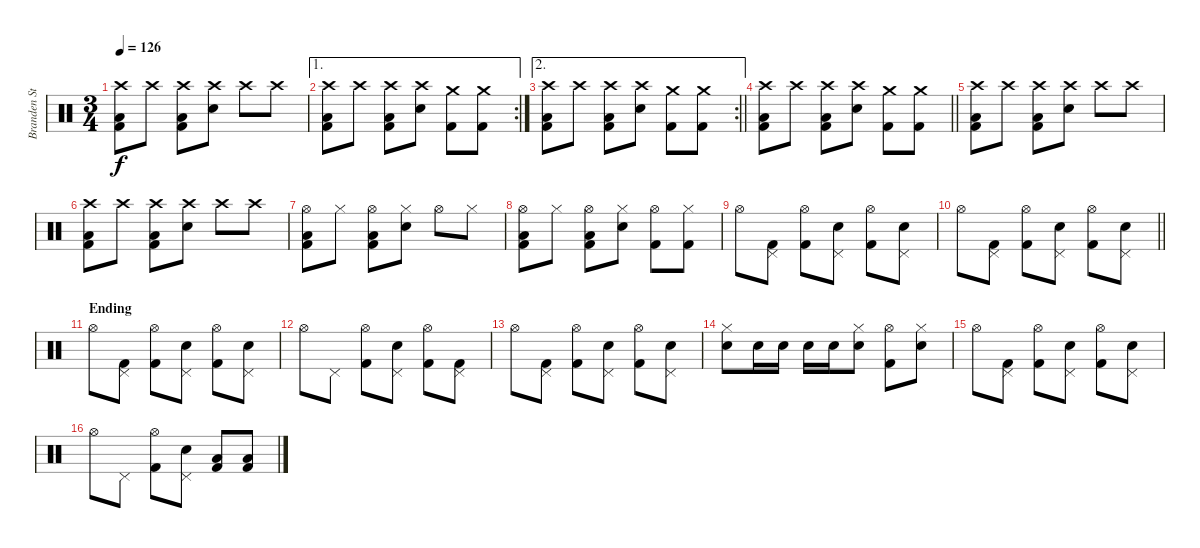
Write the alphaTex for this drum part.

\track ("Branden Steineckert [Drums]" "Branden St") {instrument percussion}
\staff {score}
\articulation defaults
\ts (3 4)
\tempo 126
\clef neutral
\ks c
("Crash high (hit)" "Low Floor Tom (hit)" "Kick (hit) 2").8{dy f} "Crash high (hit)".8 ("Crash high (hit)" "Low Floor Tom (hit)" "Kick (hit) 2").8 ("Crash high (hit)" "Electric Snare (hit)").8 "Crash high (hit)".8 "Crash high (hit)".8 |
\ae 1
\rc 2
("Crash high (hit)" "Low Floor Tom (hit)" "Kick (hit) 2").8 "Crash high (hit)".8 ("Crash high (hit)" "Low Floor Tom (hit)" "Kick (hit) 2").8 ("Crash high (hit)" "Electric Snare (hit)").8 ("Crash medium (hit)" "Kick (hit) 2").8 ("Crash medium (hit)" "Kick (hit) 2").8 |
\ae 2
\rc 2
\barLineRight lightlight
("Crash high (hit)" "Low Floor Tom (hit)" "Kick (hit) 2").8 "Crash high (hit)".8 ("Crash high (hit)" "Low Floor Tom (hit)" "Kick (hit) 2").8 ("Crash high (hit)" "Electric Snare (hit)").8 ("Crash medium (hit)" "Kick (hit) 2").8 ("Crash medium (hit)" "Kick (hit) 2").8 |
\barLineRight lightlight
("Crash high (hit)" "Low Floor Tom (hit)" "Kick (hit) 2").8 "Crash high (hit)".8 ("Crash high (hit)" "Low Floor Tom (hit)" "Kick (hit) 2").8 ("Crash high (hit)" "Electric Snare (hit)").8 ("Crash medium (hit)" "Kick (hit) 2").8 ("Crash medium (hit)" "Kick (hit) 2").8 |
("Crash high (hit)" "Low Floor Tom (hit)" "Kick (hit) 2").8 "Crash high (hit)".8 ("Crash high (hit)" "Low Floor Tom (hit)" "Kick (hit) 2").8 ("Crash high (hit)" "Electric Snare (hit)").8 "Crash high (hit)".8 "Crash high (hit)".8 |
("Crash high (hit)" "Low Floor Tom (hit)" "Kick (hit) 2").8 "Crash high (hit)".8 ("Crash high (hit)" "Low Floor Tom (hit)" "Kick (hit) 2").8 ("Crash high (hit)" "Electric Snare (hit)").8 "Crash high (hit)".8 "Crash high (hit)".8 |
("Hi-Hat (open)" "Low Floor Tom (hit)" "Kick (hit) 2").8 "Hi-Hat (closed)".8 ("Hi-Hat (open)" "Low Floor Tom (hit)" "Kick (hit) 2").8 ("Hi-Hat (closed)" "Electric Snare (hit)").8 "Hi-Hat (open)".8 "Hi-Hat (closed)".8 |
("Hi-Hat (open)" "Low Floor Tom (hit)" "Kick (hit) 2").8 "Hi-Hat (closed)".8 ("Hi-Hat (open)" "Low Floor Tom (hit)" "Kick (hit) 2").8 ("Hi-Hat (closed)" "Electric Snare (hit)").8 ("Hi-Hat (open)" "Kick (hit) 2").8 ("Hi-Hat (closed)" "Kick (hit) 2").8 |
"Hi-Hat (open)".8 ("Pedal Hi-Hat (hit)" "Kick (hit) 2").8 ("Hi-Hat (open)" "Kick (hit) 2").8 ("Pedal Hi-Hat (hit)" "Electric Snare (hit)").8 ("Hi-Hat (open)" "Kick (hit) 2").8 ("Pedal Hi-Hat (hit)" "Electric Snare (hit)").8 |
\barLineRight lightlight "Hi-Hat (open)".8
("Pedal Hi-Hat (hit)" "Kick (hit) 2").8 ("Hi-Hat (open)" "Kick (hit) 2").8 ("Pedal Hi-Hat (hit)" "Electric Snare (hit)").8 ("Hi-Hat (open)" "Kick (hit) 2").8 ("Pedal Hi-Hat (hit)" "Electric Snare (hit)").8 |
\section ("" "Ending")
"Hi-Hat (open)".8 ("Pedal Hi-Hat (hit)" "Kick (hit) 2").8 ("Hi-Hat (open)" "Kick (hit) 2").8 ("Pedal Hi-Hat (hit)" "Electric Snare (hit)").8 ("Hi-Hat (open)" "Kick (hit) 2").8 ("Pedal Hi-Hat (hit)" "Electric Snare (hit)").8 |
"Hi-Hat (open)".8 "Pedal Hi-Hat (hit)".8 ("Hi-Hat (open)" "Kick (hit) 2").8 ("Pedal Hi-Hat (hit)" "Electric Snare (hit)").8 ("Hi-Hat (open)" "Kick (hit) 2").8 ("Pedal Hi-Hat (hit)" "Kick (hit) 2").8 |
"Hi-Hat (open)".8 ("Pedal Hi-Hat (hit)" "Kick (hit) 2").8 ("Hi-Hat (open)" "Kick (hit) 2").8 ("Pedal Hi-Hat (hit)" "Electric Snare (hit)").8 ("Hi-Hat (open)" "Kick (hit) 2").8 ("Pedal Hi-Hat (hit)" "Electric Snare (hit)").8 |
("Hi-Hat (closed)" "Electric Snare (hit)").8 "Electric Snare (hit)".16 "Electric Snare (hit)".16 "Electric Snare (hit)".16 "Electric Snare (hit)".16 ("Hi-Hat (closed)" "Electric Snare (hit)").8 ("Hi-Hat (open)" "Kick (hit) 2").8 ("Hi-Hat (closed)" "Electric Snare (hit)").8 |
"Hi-Hat (open)".8 ("Pedal Hi-Hat (hit)" "Kick (hit) 2").8 ("Hi-Hat (open)" "Kick (hit) 2").8 ("Pedal Hi-Hat (hit)" "Electric Snare (hit)").8 ("Hi-Hat (open)" "Kick (hit) 2").8 ("Pedal Hi-Hat (hit)" "Electric Snare (hit)").8 |
"Hi-Hat (open)".8 "Pedal Hi-Hat (hit)".8 ("Hi-Hat (open)" "Kick (hit) 2").8 ("Pedal Hi-Hat (hit)" "Electric Snare (hit)").8 ("Low Floor Tom (hit)" "Kick (hit) 2").8 ("Low Floor Tom (hit)" "Kick (hit) 2").8
